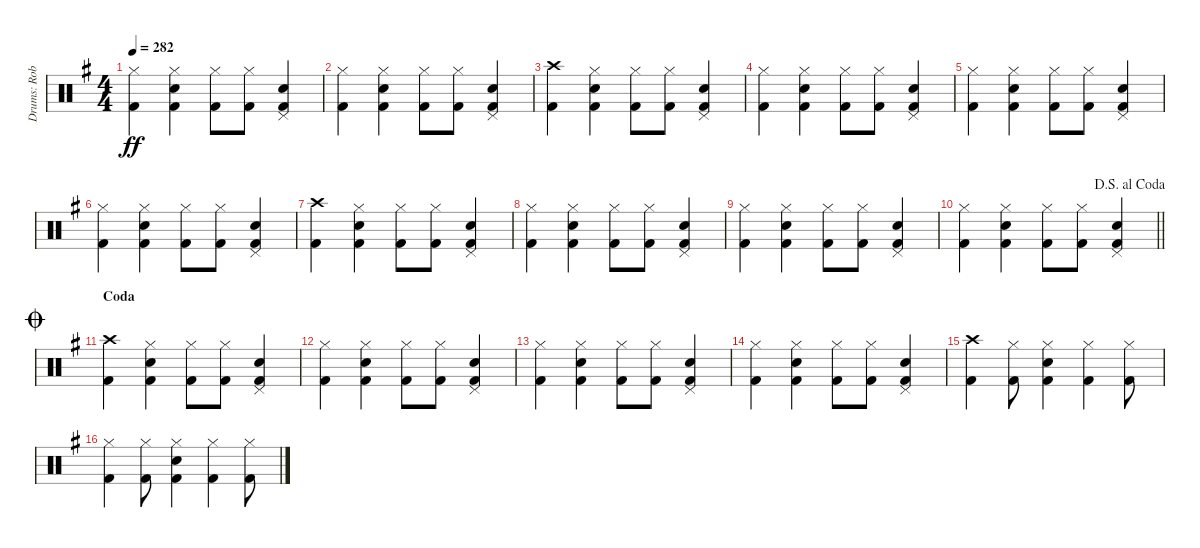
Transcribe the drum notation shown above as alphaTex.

\track ("Drums: Rob" "Drums: Rob") {instrument percussion}
\staff {score}
\articulation defaults
\ts (4 4)
\tempo 282
\clef neutral
\ks g
("Hi-Hat (closed)" "Kick (hit) 2").4{dy ff} ("Hi-Hat (closed)" "Snare (hit) 2" "Kick (hit) 2").4 ("Hi-Hat (closed)" "Kick (hit) 2").8 ("Hi-Hat (closed)" "Kick (hit) 2").8 ("Pedal Hi-Hat (hit)" "Snare (hit) 2" "Kick (hit) 2").4 |
("Hi-Hat (closed)" "Kick (hit) 2").4 ("Hi-Hat (closed)" "Snare (hit) 2" "Kick (hit) 2").4 ("Hi-Hat (closed)" "Kick (hit) 2").8 ("Hi-Hat (closed)" "Kick (hit) 2").8 ("Pedal Hi-Hat (hit)" "Snare (hit) 2" "Kick (hit) 2").4 |
("Crash high (hit)" "Kick (hit) 2").4 ("Hi-Hat (closed)" "Snare (hit) 2" "Kick (hit) 2").4 ("Hi-Hat (closed)" "Kick (hit) 2").8 ("Hi-Hat (closed)" "Kick (hit) 2").8 ("Pedal Hi-Hat (hit)" "Snare (hit) 2" "Kick (hit) 2").4 |
("Hi-Hat (closed)" "Kick (hit) 2").4 ("Hi-Hat (closed)" "Snare (hit) 2" "Kick (hit) 2").4 ("Hi-Hat (closed)" "Kick (hit) 2").8 ("Hi-Hat (closed)" "Kick (hit) 2").8 ("Pedal Hi-Hat (hit)" "Snare (hit) 2" "Kick (hit) 2").4 |
("Hi-Hat (closed)" "Kick (hit) 2").4 ("Hi-Hat (closed)" "Snare (hit) 2" "Kick (hit) 2").4 ("Hi-Hat (closed)" "Kick (hit) 2").8 ("Hi-Hat (closed)" "Kick (hit) 2").8 ("Pedal Hi-Hat (hit)" "Snare (hit) 2" "Kick (hit) 2").4 |
("Hi-Hat (closed)" "Kick (hit) 2").4 ("Hi-Hat (closed)" "Snare (hit) 2" "Kick (hit) 2").4 ("Hi-Hat (closed)" "Kick (hit) 2").8 ("Hi-Hat (closed)" "Kick (hit) 2").8 ("Pedal Hi-Hat (hit)" "Snare (hit) 2" "Kick (hit) 2").4 |
("Crash high (hit)" "Kick (hit) 2").4 ("Hi-Hat (closed)" "Snare (hit) 2" "Kick (hit) 2").4 ("Hi-Hat (closed)" "Kick (hit) 2").8 ("Hi-Hat (closed)" "Kick (hit) 2").8 ("Pedal Hi-Hat (hit)" "Snare (hit) 2" "Kick (hit) 2").4 |
("Hi-Hat (closed)" "Kick (hit) 2").4 ("Hi-Hat (closed)" "Snare (hit) 2" "Kick (hit) 2").4 ("Hi-Hat (closed)" "Kick (hit) 2").8 ("Hi-Hat (closed)" "Kick (hit) 2").8 ("Pedal Hi-Hat (hit)" "Snare (hit) 2" "Kick (hit) 2").4 |
("Hi-Hat (closed)" "Kick (hit) 2").4 ("Hi-Hat (closed)" "Snare (hit) 2" "Kick (hit) 2").4 ("Hi-Hat (closed)" "Kick (hit) 2").8 ("Hi-Hat (closed)" "Kick (hit) 2").8 ("Pedal Hi-Hat (hit)" "Snare (hit) 2" "Kick (hit) 2").4 |
\jump dalsegnoalcoda
\barLineRight lightlight
("Hi-Hat (closed)" "Kick (hit) 2").4 ("Hi-Hat (closed)" "Snare (hit) 2" "Kick (hit) 2").4 ("Hi-Hat (closed)" "Kick (hit) 2").8 ("Hi-Hat (closed)" "Kick (hit) 2").8 ("Pedal Hi-Hat (hit)" "Snare (hit) 2" "Kick (hit) 2").4 |
\section ("" "Coda")
\jump coda
("Crash high (hit)" "Kick (hit) 2").4 ("Hi-Hat (closed)" "Snare (hit) 2" "Kick (hit) 2").4 ("Hi-Hat (closed)" "Kick (hit) 2").8 ("Hi-Hat (closed)" "Kick (hit) 2").8 ("Pedal Hi-Hat (hit)" "Snare (hit) 2" "Kick (hit) 2").4 |
("Hi-Hat (closed)" "Kick (hit) 2").4 ("Hi-Hat (closed)" "Snare (hit) 2" "Kick (hit) 2").4 ("Hi-Hat (closed)" "Kick (hit) 2").8 ("Hi-Hat (closed)" "Kick (hit) 2").8 ("Pedal Hi-Hat (hit)" "Snare (hit) 2" "Kick (hit) 2").4 |
("Hi-Hat (closed)" "Kick (hit) 2").4 ("Hi-Hat (closed)" "Snare (hit) 2" "Kick (hit) 2").4 ("Hi-Hat (closed)" "Kick (hit) 2").8 ("Hi-Hat (closed)" "Kick (hit) 2").8 ("Pedal Hi-Hat (hit)" "Snare (hit) 2" "Kick (hit) 2").4 |
("Hi-Hat (closed)" "Kick (hit) 2").4 ("Hi-Hat (closed)" "Snare (hit) 2" "Kick (hit) 2").4 ("Hi-Hat (closed)" "Kick (hit) 2").8 ("Hi-Hat (closed)" "Kick (hit) 2").8 ("Pedal Hi-Hat (hit)" "Snare (hit) 2" "Kick (hit) 2").4 |
("Crash high (hit)" "Kick (hit) 2").4 ("Hi-Hat (closed)" "Kick (hit) 2").8 ("Hi-Hat (closed)" "Snare (hit) 2" "Kick (hit) 2").4 ("Hi-Hat (closed)" "Kick (hit) 2").4 ("Hi-Hat (closed)" "Kick (hit) 2").8 |
("Hi-Hat (closed)" "Kick (hit) 2").4 ("Hi-Hat (closed)" "Kick (hit) 2").8 ("Hi-Hat (closed)" "Snare (hit) 2" "Kick (hit) 2").4 ("Hi-Hat (closed)" "Kick (hit) 2").4 ("Hi-Hat (closed)" "Kick (hit) 2").8
